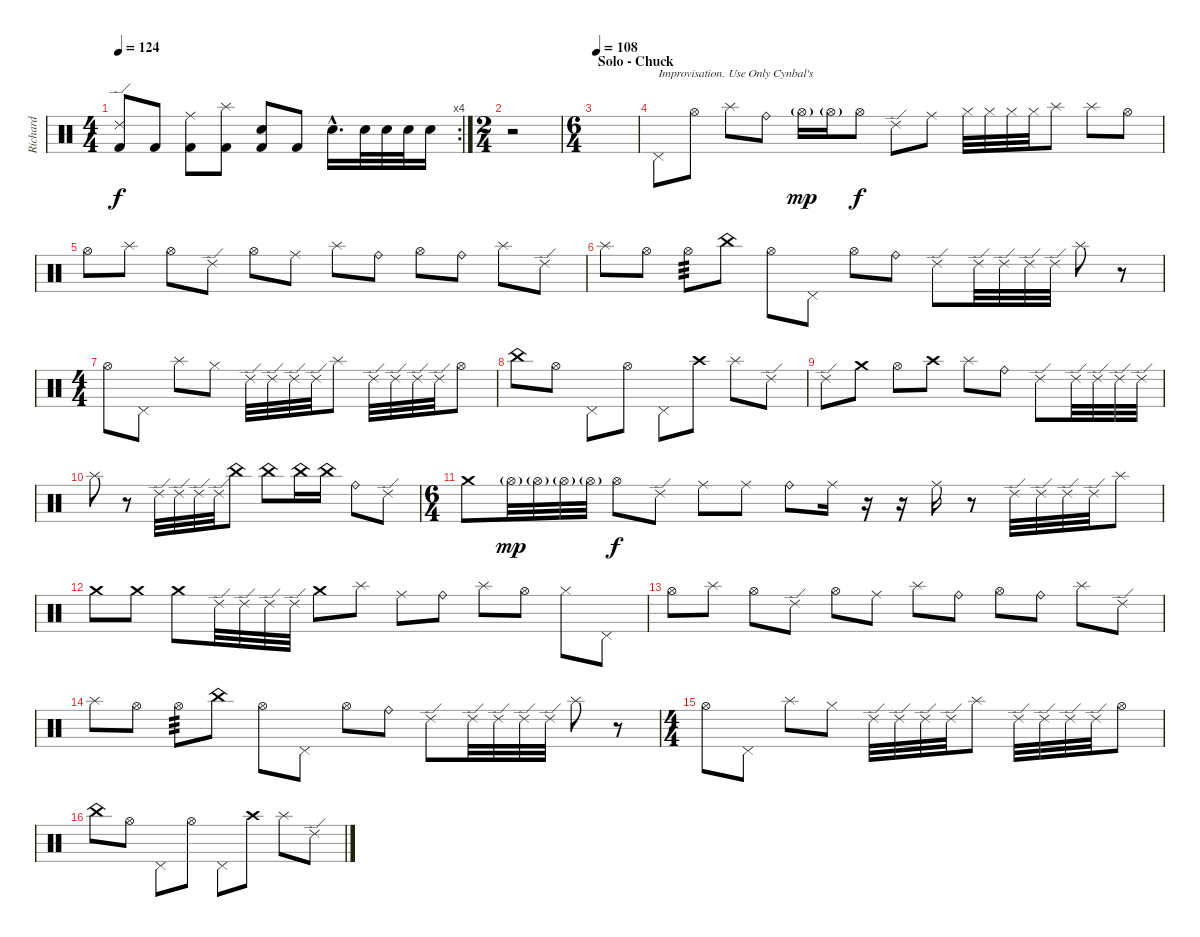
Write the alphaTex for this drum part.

\track ("Richard" "Richard") {instrument percussion}
\staff {score}
\articulation defaults
\rc 4
\ts (4 4)
\tempo 124
\clef neutral
\ks c
("Ride (edge) 2" "Kick (hit) 2").8{dy f} "Kick (hit) 2".8 ("Ride (middle)" "Kick (hit) 2").8 ("Splash (hit)" "Kick (hit) 2").8 ("Electric Snare (hit)" "Kick (hit) 2").8 "Kick (hit) 2".8 "Electric Snare (hit)"{hac}.16{d} "Electric Snare (hit)".32 "Electric Snare (hit)".32 "Electric Snare (hit)".32 "Electric Snare (hit)".16 |
\ts (2 4)
r.2 |
\ts (6 4)
\section ("" "Solo - Chuck")
\tempo 108
|
"Pedal Hi-Hat (hit)".8{txt "Improvisation. Use Only Cynbal's"} "Hi-Hat (open)".8 "Splash (hit)".8 "Ride (bell)".8 "Hi-Hat (open)"{g}.16{dy mp} "Hi-Hat (open)"{g}.16 "Hi-Hat (open)".8{dy f} "Ride (edge) 2".8 "Ride (middle)".8 "Hi-Hat (closed)".32 "Hi-Hat (closed)".32 "Hi-Hat (closed)".32 "Hi-Hat (closed)".32 "Splash (hit)".8 "Splash (hit)".8 "Hi-Hat (open)".8 |
"Hi-Hat (open)".8 "Splash (hit)".8 "Hi-Hat (open)".8 "Ride (edge) 2".8 "Hi-Hat (open)".8 "Ride (middle)".8 "Splash (hit)".8 "Ride (bell)".8 "Hi-Hat (open)".8 "Ride (bell)".8 "Splash (hit)".8 "Ride (edge) 2".8 |
"Splash (hit)".8 "Hi-Hat (open)".8 "Hi-Hat (open)".8{tp 3} "China (hit)".8 "Hi-Hat (open)".8 "Pedal Hi-Hat (hit)".8 "Hi-Hat (open)".8 "Ride (bell)".8 "Ride (edge) 2".8 "Ride (edge) 2".32 "Ride (edge) 2".32 "Ride (edge) 2".32 "Ride (edge) 2".32 "Splash (hit)".8 r.8 |
\ts (4 4)
"Hi-Hat (open)".8 "Pedal Hi-Hat (hit)".8 "Splash (hit)".8 "Hi-Hat (closed)".8 "Ride (edge) 2".32 "Ride (edge) 2".32 "Ride (edge) 2".32 "Ride (edge) 2".32 "Splash (hit)".8 "Ride (edge) 2".32 "Ride (edge) 2".32 "Ride (edge) 2".32 "Ride (edge) 2".32 "Hi-Hat (open)".8 |
"China (hit)".8 "Hi-Hat (open)".8 "Pedal Hi-Hat (hit)".8 "Hi-Hat (open)".8 "Pedal Hi-Hat (hit)".8 "Crash high (hit)".8 "Splash (hit)".8 "Ride (edge) 2".8 |
"Ride (edge) 2".8 "Crash medium (hit)".8 "Hi-Hat (open)".8 "Crash high (hit)".8 "Splash (hit)".8 "Ride (bell)".8 "Ride (edge) 2".8 "Ride (edge) 2".32 "Ride (edge) 2".32 "Ride (edge) 2".32 "Ride (edge) 2".32 |
"Splash (hit)".8 r.8 "Ride (edge) 2".32 "Ride (edge) 2".32 "Ride (edge) 2".32 "Ride (edge) 2".32 "China (hit)".8 "China (hit)".8 "China (hit)".16 "China (hit)".16 "Ride (bell)".8 "Ride (edge) 2".8 |
\ts (6 4)
"Crash medium (hit)".8 "Hi-Hat (open)"{g}.32{dy mp} "Hi-Hat (open)"{g}.32 "Hi-Hat (open)"{g}.32 "Hi-Hat (open)"{g}.32 "Hi-Hat (open)".8{dy f} "Ride (edge) 2".8 "Ride (middle)".8 "Ride (middle)".8 "Ride (bell)".8 "Ride (middle)".16 r.16 r.16 "Ride (middle)".16 r.8 "Ride (edge) 2".32 "Ride (edge) 2".32 "Ride (edge) 2".32 "Ride (edge) 2".32 "Splash (hit)".8 |
"Crash medium (hit)".8 "Crash medium (hit)".8 "Crash medium (hit)".8 "Ride (edge) 2".32 "Ride (edge) 2".32 "Ride (edge) 2".32 "Ride (edge) 2".32 "Crash medium (hit)".8 "Splash (hit)".8 "Ride (middle)".8 "Ride (bell)".8 "Splash (hit)".8 "Hi-Hat (open)".8 "Hi-Hat (closed)".8 "Pedal Hi-Hat (hit)".8 |
"Hi-Hat (open)".8 "Splash (hit)".8 "Hi-Hat (open)".8 "Ride (edge) 2".8 "Hi-Hat (open)".8 "Ride (middle)".8 "Splash (hit)".8 "Ride (bell)".8 "Hi-Hat (open)".8 "Ride (bell)".8 "Splash (hit)".8 "Ride (edge) 2".8 |
"Splash (hit)".8 "Hi-Hat (open)".8 "Hi-Hat (open)".8{tp 3} "China (hit)".8 "Hi-Hat (open)".8 "Pedal Hi-Hat (hit)".8 "Hi-Hat (open)".8 "Ride (bell)".8 "Ride (edge) 2".8 "Ride (edge) 2".32 "Ride (edge) 2".32 "Ride (edge) 2".32 "Ride (edge) 2".32 "Splash (hit)".8 r.8 |
\ts (4 4)
"Hi-Hat (open)".8 "Pedal Hi-Hat (hit)".8 "Splash (hit)".8 "Hi-Hat (closed)".8 "Ride (edge) 2".32 "Ride (edge) 2".32 "Ride (edge) 2".32 "Ride (edge) 2".32 "Splash (hit)".8 "Ride (edge) 2".32 "Ride (edge) 2".32 "Ride (edge) 2".32 "Ride (edge) 2".32 "Hi-Hat (open)".8 |
"China (hit)".8 "Hi-Hat (open)".8 "Pedal Hi-Hat (hit)".8 "Hi-Hat (open)".8 "Pedal Hi-Hat (hit)".8 "Crash high (hit)".8 "Splash (hit)".8 "Ride (edge) 2".8
